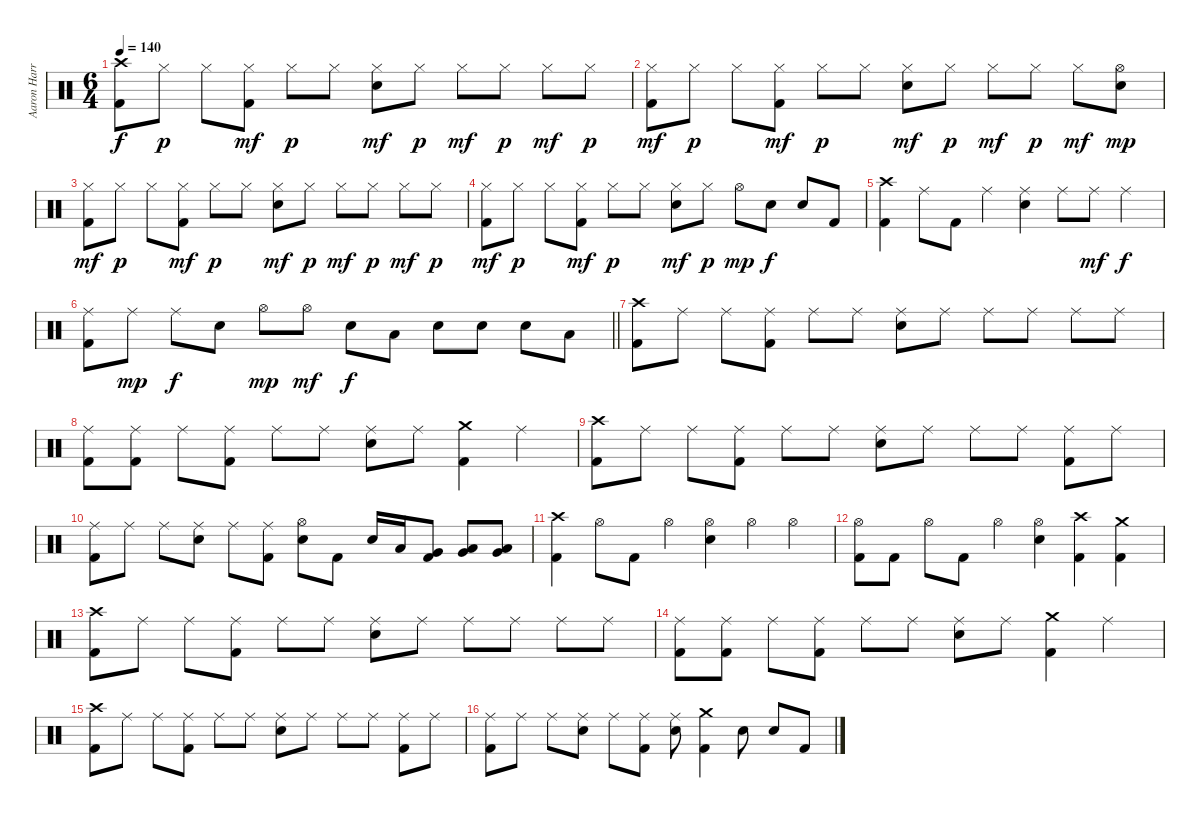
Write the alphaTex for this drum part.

\track ("Aaron Harris" "Aaron Harr") {instrument percussion}
\staff {score}
\articulation defaults
\ts (6 4)
\tempo 140
\clef neutral
\ks c
("Crash high (hit)" "Kick (hit) 2").8{dy f} "Hi-Hat (closed)".8{dy p} "Hi-Hat (closed)".8 ("Hi-Hat (closed)" "Kick (hit) 2").8{dy mf} "Hi-Hat (closed)".8{dy p} "Hi-Hat (closed)".8 ("Hi-Hat (closed)" "Electric Snare (hit)").8{dy mf} "Hi-Hat (closed)".8{dy p} "Hi-Hat (closed)".8{dy mf} "Hi-Hat (closed)".8{dy p} "Hi-Hat (closed)".8{dy mf} "Hi-Hat (closed)".8{dy p} |
("Hi-Hat (closed)" "Kick (hit) 2").8{dy mf} "Hi-Hat (closed)".8{dy p} "Hi-Hat (closed)".8 ("Hi-Hat (closed)" "Kick (hit) 2").8{dy mf} "Hi-Hat (closed)".8{dy p} "Hi-Hat (closed)".8 ("Hi-Hat (closed)" "Electric Snare (hit)").8{dy mf} "Hi-Hat (closed)".8{dy p} "Hi-Hat (closed)".8{dy mf} "Hi-Hat (closed)".8{dy p} "Hi-Hat (closed)".8{dy mf} ("Hi-Hat (open)" "Electric Snare (hit)").8{dy mp} |
("Hi-Hat (closed)" "Kick (hit) 2").8{dy mf} "Hi-Hat (closed)".8{dy p} "Hi-Hat (closed)".8 ("Hi-Hat (closed)" "Kick (hit) 2").8{dy mf} "Hi-Hat (closed)".8{dy p} "Hi-Hat (closed)".8 ("Hi-Hat (closed)" "Electric Snare (hit)").8{dy mf} "Hi-Hat (closed)".8{dy p} "Hi-Hat (closed)".8{dy mf} "Hi-Hat (closed)".8{dy p} "Hi-Hat (closed)".8{dy mf} "Hi-Hat (closed)".8{dy p} |
("Hi-Hat (closed)" "Kick (hit) 2").8{dy mf} "Hi-Hat (closed)".8{dy p} "Hi-Hat (closed)".8 ("Hi-Hat (closed)" "Kick (hit) 2").8{dy mf} "Hi-Hat (closed)".8{dy p} "Hi-Hat (closed)".8 ("Hi-Hat (closed)" "Electric Snare (hit)").8{dy mf} "Hi-Hat (closed)".8{dy p} "Hi-Hat (open)".8{dy mp} "Electric Snare (hit)".8{dy f} "Electric Snare (hit)".8 "Kick (hit) 2".8 |
("Crash high (hit)" "Kick (hit) 2").4 "Ride (middle)".8 "Kick (hit) 2".8 "Ride (middle)".4 ("Ride (middle)" "Electric Snare (hit)").4 "Ride (middle)".8 "Ride (middle)".8{dy mf} "Ride (middle)".4{dy f} |
\barLineRight lightlight
("Ride (middle)" "Kick (hit) 2").8 "Ride (middle)".8{dy mp} "Ride (middle)".8{dy f} "Electric Snare (hit)".8 "Hi-Hat (open)".8{dy mp} "Hi-Hat (open)".8{dy mf} "Electric Snare (hit)".8{dy f} "Low Tom (hit)".8 "Electric Snare (hit)".8 "Electric Snare (hit)".8 "Electric Snare (hit)".8 "Low Tom (hit)".8 |
\section ("" "")
("Crash high (hit)" "Kick (hit) 2").8 "Ride (middle)".8 "Ride (middle)".8 ("Ride (middle)" "Kick (hit) 2").8 "Ride (middle)".8 "Ride (middle)".8 ("Ride (middle)" "Electric Snare (hit)").8 "Ride (middle)".8 "Ride (middle)".8 "Ride (middle)".8 "Ride (middle)".8 "Ride (middle)".8 |
("Ride (middle)" "Kick (hit) 2").8 ("Ride (middle)" "Kick (hit) 2").8 "Ride (middle)".8 ("Ride (middle)" "Kick (hit) 2").8 "Ride (middle)".8 "Ride (middle)".8 ("Ride (middle)" "Electric Snare (hit)").8 "Ride (middle)".8 ("Crash medium (hit)" "Kick (hit) 2").4 "Ride (middle)".4 |
("Crash high (hit)" "Kick (hit) 2").8 "Ride (middle)".8 "Ride (middle)".8 ("Ride (middle)" "Kick (hit) 2").8 "Ride (middle)".8 "Ride (middle)".8 ("Ride (middle)" "Electric Snare (hit)").8 "Ride (middle)".8 "Ride (middle)".8 "Ride (middle)".8 ("Ride (middle)" "Kick (hit) 2").8 "Ride (middle)".8 |
("Ride (middle)" "Kick (hit) 2").8 "Ride (middle)".8 "Ride (middle)".8 ("Ride (middle)" "Electric Snare (hit)").8 "Ride (middle)".8 ("Ride (middle)" "Kick (hit) 2").8 ("Hi-Hat (open)" "Electric Snare (hit)").8 "Kick (hit) 2".8 "Electric Snare (hit)".16 "Low Tom (hit)".16 ("Very Low Tom (hit)" "Kick (hit) 2").8 ("Very Low Tom (hit)" "Low Floor Tom (hit)").8 ("Very Low Tom (hit)" "Low Floor Tom (hit)").8 |
("Crash high (hit)" "Kick (hit) 2").4 "Hi-Hat (open)".8 "Kick (hit) 2".8 "Hi-Hat (open)".4 ("Hi-Hat (open)" "Electric Snare (hit)").4 "Hi-Hat (open)".4 "Hi-Hat (open)".4 |
("Hi-Hat (open)" "Kick (hit) 2").8 "Kick (hit) 2".8 "Hi-Hat (open)".8 "Kick (hit) 2".8 "Hi-Hat (open)".4 ("Hi-Hat (open)" "Electric Snare (hit)").4 ("Crash high (hit)" "Kick (hit) 2").4 ("Crash medium (hit)" "Kick (hit) 2").4 |
("Crash high (hit)" "Kick (hit) 2").8 "Ride (middle)".8 "Ride (middle)".8 ("Ride (middle)" "Kick (hit) 2").8 "Ride (middle)".8 "Ride (middle)".8 ("Ride (middle)" "Electric Snare (hit)").8 "Ride (middle)".8 "Ride (middle)".8 "Ride (middle)".8 "Ride (middle)".8 "Ride (middle)".8 |
("Ride (middle)" "Kick (hit) 2").8 ("Ride (middle)" "Kick (hit) 2").8 "Ride (middle)".8 ("Ride (middle)" "Kick (hit) 2").8 "Ride (middle)".8 "Ride (middle)".8 ("Ride (middle)" "Electric Snare (hit)").8 "Ride (middle)".8 ("Crash medium (hit)" "Kick (hit) 2").4 "Ride (middle)".4 |
("Crash high (hit)" "Kick (hit) 2").8 "Ride (middle)".8 "Ride (middle)".8 ("Ride (middle)" "Kick (hit) 2").8 "Ride (middle)".8 "Ride (middle)".8 ("Ride (middle)" "Electric Snare (hit)").8 "Ride (middle)".8 "Ride (middle)".8 "Ride (middle)".8 ("Ride (middle)" "Kick (hit) 2").8 "Ride (middle)".8 |
("Ride (middle)" "Kick (hit) 2").8 "Ride (middle)".8 "Ride (middle)".8 ("Ride (middle)" "Electric Snare (hit)").8 "Ride (middle)".8 ("Ride (middle)" "Kick (hit) 2").8 ("Ride (middle)" "Electric Snare (hit)").8 ("Crash medium (hit)" "Kick (hit) 2").4 "Electric Snare (hit)".8 "Electric Snare (hit)".8 "Kick (hit) 2".8
